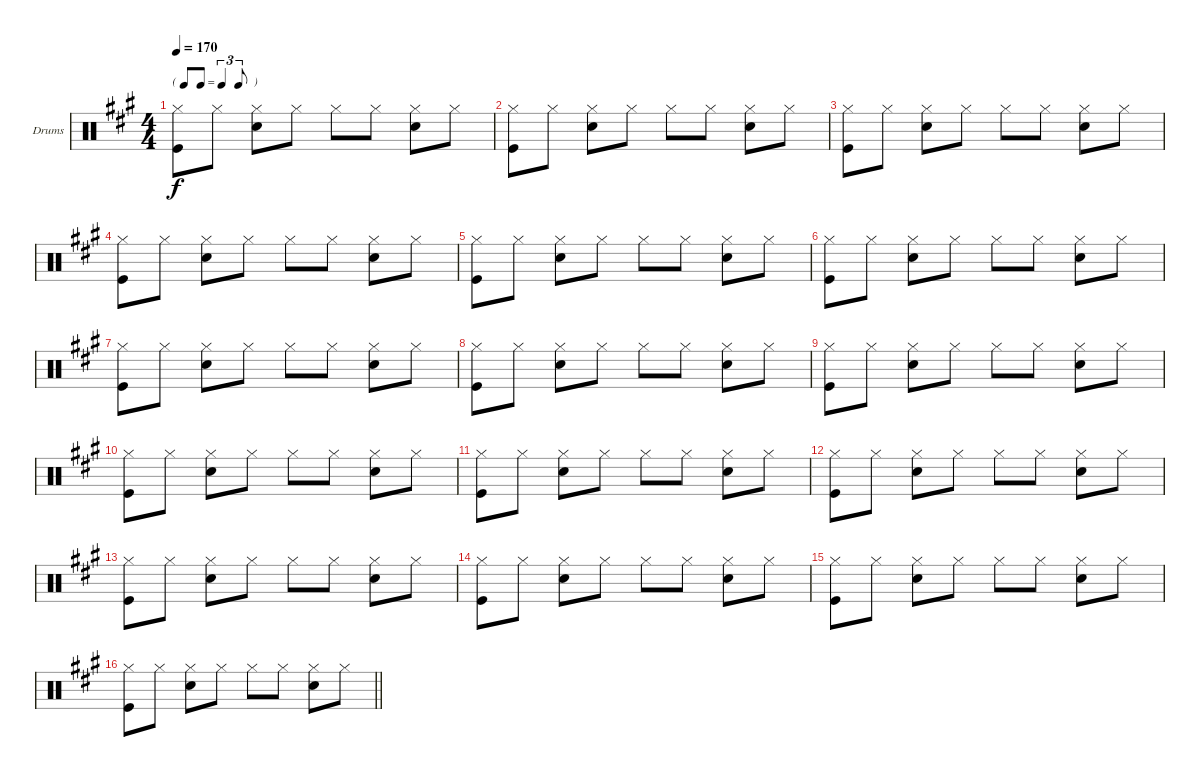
\bracketExtendMode groupsimilarinstruments
\firstSystemTrackNameOrientation horizontal
\otherSystemsTrackNameOrientation horizontal
\track ("Ringo" "Drums") {instrument percussion}
\staff {score}
\articulation defaults
\ts (4 4)
\tf triplet8th
\tempo 170
\clef neutral
\ks a
("Hi-Hat (closed)" "Kick (hit)").8{dy f} "Hi-Hat (closed)".8 ("Hi-Hat (closed)" "Snare (hit) 2").8 "Hi-Hat (closed)".8 "Hi-Hat (closed)".8 "Hi-Hat (closed)".8 ("Hi-Hat (closed)" "Snare (hit) 2").8 "Hi-Hat (closed)".8 |
("Hi-Hat (closed)" "Kick (hit)").8 "Hi-Hat (closed)".8 ("Hi-Hat (closed)" "Snare (hit) 2").8 "Hi-Hat (closed)".8 "Hi-Hat (closed)".8 "Hi-Hat (closed)".8 ("Hi-Hat (closed)" "Snare (hit) 2").8 "Hi-Hat (closed)".8 |
("Hi-Hat (closed)" "Kick (hit)").8 "Hi-Hat (closed)".8 ("Hi-Hat (closed)" "Snare (hit) 2").8 "Hi-Hat (closed)".8 "Hi-Hat (closed)".8 "Hi-Hat (closed)".8 ("Hi-Hat (closed)" "Snare (hit) 2").8 "Hi-Hat (closed)".8 |
("Hi-Hat (closed)" "Kick (hit)").8 "Hi-Hat (closed)".8 ("Hi-Hat (closed)" "Snare (hit) 2").8 "Hi-Hat (closed)".8 "Hi-Hat (closed)".8 "Hi-Hat (closed)".8 ("Hi-Hat (closed)" "Snare (hit) 2").8 "Hi-Hat (closed)".8 |
("Hi-Hat (closed)" "Kick (hit)").8 "Hi-Hat (closed)".8 ("Hi-Hat (closed)" "Snare (hit) 2").8 "Hi-Hat (closed)".8 "Hi-Hat (closed)".8 "Hi-Hat (closed)".8 ("Hi-Hat (closed)" "Snare (hit) 2").8 "Hi-Hat (closed)".8 |
("Hi-Hat (closed)" "Kick (hit)").8 "Hi-Hat (closed)".8 ("Hi-Hat (closed)" "Snare (hit) 2").8 "Hi-Hat (closed)".8 "Hi-Hat (closed)".8 "Hi-Hat (closed)".8 ("Hi-Hat (closed)" "Snare (hit) 2").8 "Hi-Hat (closed)".8 |
("Hi-Hat (closed)" "Kick (hit)").8 "Hi-Hat (closed)".8 ("Hi-Hat (closed)" "Snare (hit) 2").8 "Hi-Hat (closed)".8 "Hi-Hat (closed)".8 "Hi-Hat (closed)".8 ("Hi-Hat (closed)" "Snare (hit) 2").8 "Hi-Hat (closed)".8 |
("Hi-Hat (closed)" "Kick (hit)").8 "Hi-Hat (closed)".8 ("Hi-Hat (closed)" "Snare (hit) 2").8 "Hi-Hat (closed)".8 "Hi-Hat (closed)".8 "Hi-Hat (closed)".8 ("Hi-Hat (closed)" "Snare (hit) 2").8 "Hi-Hat (closed)".8 |
("Hi-Hat (closed)" "Kick (hit)").8 "Hi-Hat (closed)".8 ("Hi-Hat (closed)" "Snare (hit) 2").8 "Hi-Hat (closed)".8 "Hi-Hat (closed)".8 "Hi-Hat (closed)".8 ("Hi-Hat (closed)" "Snare (hit) 2").8 "Hi-Hat (closed)".8 |
("Hi-Hat (closed)" "Kick (hit)").8 "Hi-Hat (closed)".8 ("Hi-Hat (closed)" "Snare (hit) 2").8 "Hi-Hat (closed)".8 "Hi-Hat (closed)".8 "Hi-Hat (closed)".8 ("Hi-Hat (closed)" "Snare (hit) 2").8 "Hi-Hat (closed)".8 |
("Hi-Hat (closed)" "Kick (hit)").8 "Hi-Hat (closed)".8 ("Hi-Hat (closed)" "Snare (hit) 2").8 "Hi-Hat (closed)".8 "Hi-Hat (closed)".8 "Hi-Hat (closed)".8 ("Hi-Hat (closed)" "Snare (hit) 2").8 "Hi-Hat (closed)".8 |
("Hi-Hat (closed)" "Kick (hit)").8 "Hi-Hat (closed)".8 ("Hi-Hat (closed)" "Snare (hit) 2").8 "Hi-Hat (closed)".8 "Hi-Hat (closed)".8 "Hi-Hat (closed)".8 ("Hi-Hat (closed)" "Snare (hit) 2").8 "Hi-Hat (closed)".8 |
("Hi-Hat (closed)" "Kick (hit)").8 "Hi-Hat (closed)".8 ("Hi-Hat (closed)" "Snare (hit) 2").8 "Hi-Hat (closed)".8 "Hi-Hat (closed)".8 "Hi-Hat (closed)".8 ("Hi-Hat (closed)" "Snare (hit) 2").8 "Hi-Hat (closed)".8 |
("Hi-Hat (closed)" "Kick (hit)").8 "Hi-Hat (closed)".8 ("Hi-Hat (closed)" "Snare (hit) 2").8 "Hi-Hat (closed)".8 "Hi-Hat (closed)".8 "Hi-Hat (closed)".8 ("Hi-Hat (closed)" "Snare (hit) 2").8 "Hi-Hat (closed)".8 |
("Hi-Hat (closed)" "Kick (hit)").8 "Hi-Hat (closed)".8 ("Hi-Hat (closed)" "Snare (hit) 2").8 "Hi-Hat (closed)".8 "Hi-Hat (closed)".8 "Hi-Hat (closed)".8 ("Hi-Hat (closed)" "Snare (hit) 2").8 "Hi-Hat (closed)".8 |
\barLineRight lightlight
("Hi-Hat (closed)" "Kick (hit)").8 "Hi-Hat (closed)".8 ("Hi-Hat (closed)" "Snare (hit) 2").8 "Hi-Hat (closed)".8 "Hi-Hat (closed)".8 "Hi-Hat (closed)".8 ("Hi-Hat (closed)" "Snare (hit) 2").8 "Hi-Hat (closed)".8
